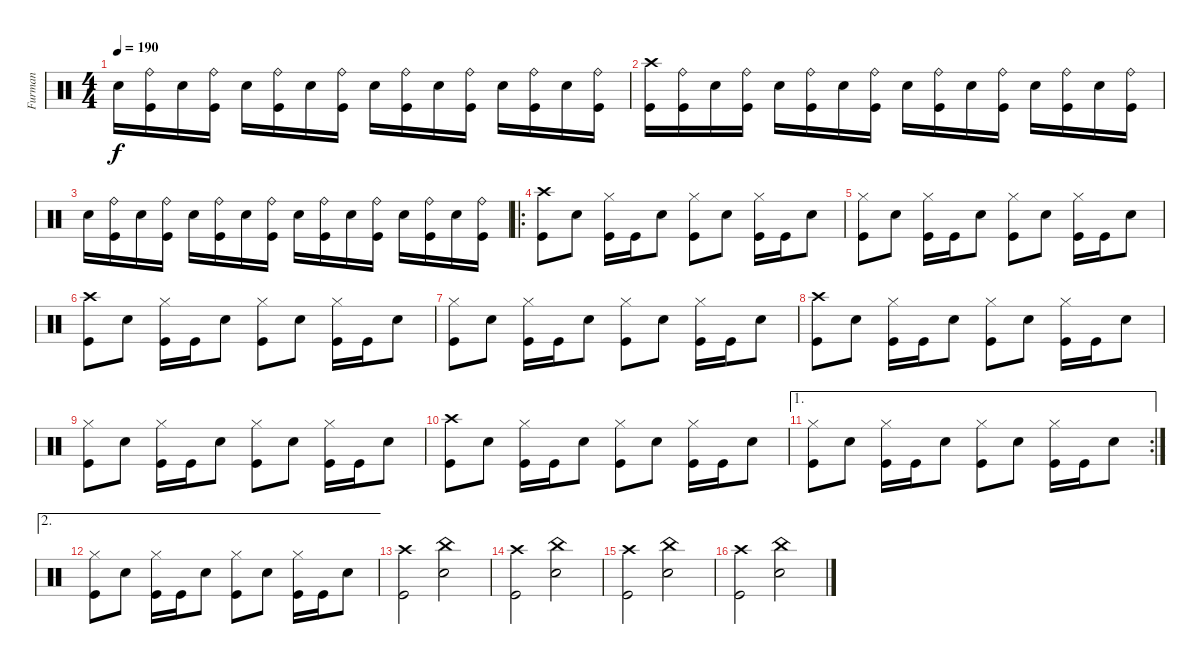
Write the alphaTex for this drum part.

\track ("Furman" "Furman") {instrument percussion}
\staff {score}
\articulation defaults
\ts (4 4)
\tempo 190
\clef neutral
\ks c "Electric Snare (hit)".16{dy f}
("Ride (bell)" "Kick (hit)").16 "Electric Snare (hit)".16 ("Ride (bell)" "Kick (hit)").16 "Electric Snare (hit)".16 ("Ride (bell)" "Kick (hit)").16 "Electric Snare (hit)".16 ("Ride (bell)" "Kick (hit)").16 "Electric Snare (hit)".16 ("Ride (bell)" "Kick (hit)").16 "Electric Snare (hit)".16 ("Ride (bell)" "Kick (hit)").16 "Electric Snare (hit)".16 ("Ride (bell)" "Kick (hit)").16 "Electric Snare (hit)".16 ("Ride (bell)" "Kick (hit)").16 |
("Crash high (hit)" "Kick (hit)").16 ("Ride (bell)" "Kick (hit)").16 "Electric Snare (hit)".16 ("Ride (bell)" "Kick (hit)").16 "Electric Snare (hit)".16 ("Ride (bell)" "Kick (hit)").16 "Electric Snare (hit)".16 ("Ride (bell)" "Kick (hit)").16 "Electric Snare (hit)".16 ("Ride (bell)" "Kick (hit)").16 "Electric Snare (hit)".16 ("Ride (bell)" "Kick (hit)").16 "Electric Snare (hit)".16 ("Ride (bell)" "Kick (hit)").16 "Electric Snare (hit)".16 ("Ride (bell)" "Kick (hit)").16 |
"Electric Snare (hit)".16 ("Ride (bell)" "Kick (hit)").16 "Electric Snare (hit)".16 ("Ride (bell)" "Kick (hit)").16 "Electric Snare (hit)".16 ("Ride (bell)" "Kick (hit)").16 "Electric Snare (hit)".16 ("Ride (bell)" "Kick (hit)").16 "Electric Snare (hit)".16 ("Ride (bell)" "Kick (hit)").16 "Electric Snare (hit)".16 ("Ride (bell)" "Kick (hit)").16 "Electric Snare (hit)".16 ("Ride (bell)" "Kick (hit)").16 "Electric Snare (hit)".16 ("Ride (bell)" "Kick (hit)").16 |
\ro
("Crash high (hit)" "Kick (hit)").8 "Electric Snare (hit)".8 ("Hi-Hat (closed)" "Kick (hit)").16 "Kick (hit)".16 "Electric Snare (hit)".8 ("Hi-Hat (closed)" "Kick (hit)").8 "Electric Snare (hit)".8 ("Hi-Hat (closed)" "Kick (hit)").16 "Kick (hit)".16 "Electric Snare (hit)".8 |
("Hi-Hat (closed)" "Kick (hit)").8 "Electric Snare (hit)".8 ("Hi-Hat (closed)" "Kick (hit)").16 "Kick (hit)".16 "Electric Snare (hit)".8 ("Hi-Hat (closed)" "Kick (hit)").8 "Electric Snare (hit)".8 ("Hi-Hat (closed)" "Kick (hit)").16 "Kick (hit)".16 "Electric Snare (hit)".8 |
("Crash high (hit)" "Kick (hit)").8 "Electric Snare (hit)".8 ("Hi-Hat (closed)" "Kick (hit)").16 "Kick (hit)".16 "Electric Snare (hit)".8 ("Hi-Hat (closed)" "Kick (hit)").8 "Electric Snare (hit)".8 ("Hi-Hat (closed)" "Kick (hit)").16 "Kick (hit)".16 "Electric Snare (hit)".8 |
("Hi-Hat (closed)" "Kick (hit)").8 "Electric Snare (hit)".8 ("Hi-Hat (closed)" "Kick (hit)").16 "Kick (hit)".16 "Electric Snare (hit)".8 ("Hi-Hat (closed)" "Kick (hit)").8 "Electric Snare (hit)".8 ("Hi-Hat (closed)" "Kick (hit)").16 "Kick (hit)".16 "Electric Snare (hit)".8 |
("Crash high (hit)" "Kick (hit)").8 "Electric Snare (hit)".8 ("Hi-Hat (closed)" "Kick (hit)").16 "Kick (hit)".16 "Electric Snare (hit)".8 ("Hi-Hat (closed)" "Kick (hit)").8 "Electric Snare (hit)".8 ("Hi-Hat (closed)" "Kick (hit)").16 "Kick (hit)".16 "Electric Snare (hit)".8 |
("Hi-Hat (closed)" "Kick (hit)").8 "Electric Snare (hit)".8 ("Hi-Hat (closed)" "Kick (hit)").16 "Kick (hit)".16 "Electric Snare (hit)".8 ("Hi-Hat (closed)" "Kick (hit)").8 "Electric Snare (hit)".8 ("Hi-Hat (closed)" "Kick (hit)").16 "Kick (hit)".16 "Electric Snare (hit)".8 |
("Crash high (hit)" "Kick (hit)").8 "Electric Snare (hit)".8 ("Hi-Hat (closed)" "Kick (hit)").16 "Kick (hit)".16 "Electric Snare (hit)".8 ("Hi-Hat (closed)" "Kick (hit)").8 "Electric Snare (hit)".8 ("Hi-Hat (closed)" "Kick (hit)").16 "Kick (hit)".16 "Electric Snare (hit)".8 |
\ae 1
\rc 2
("Hi-Hat (closed)" "Kick (hit)").8 "Electric Snare (hit)".8 ("Hi-Hat (closed)" "Kick (hit)").16 "Kick (hit)".16 "Electric Snare (hit)".8 ("Hi-Hat (closed)" "Kick (hit)").8 "Electric Snare (hit)".8 ("Hi-Hat (closed)" "Kick (hit)").16 "Kick (hit)".16 "Electric Snare (hit)".8 |
\ae 2
("Hi-Hat (closed)" "Kick (hit)").8 "Electric Snare (hit)".8 ("Hi-Hat (closed)" "Kick (hit)").16 "Kick (hit)".16 "Electric Snare (hit)".8 ("Hi-Hat (closed)" "Kick (hit)").8 "Electric Snare (hit)".8 ("Hi-Hat (closed)" "Kick (hit)").16 "Kick (hit)".16 "Electric Snare (hit)".8 |
("Crash high (hit)" "Kick (hit)").2 ("China (hit)" "Electric Snare (hit)").2 |
("Crash high (hit)" "Kick (hit)").2 ("China (hit)" "Electric Snare (hit)").2 |
("Crash high (hit)" "Kick (hit)").2 ("China (hit)" "Electric Snare (hit)").2 |
("Crash high (hit)" "Kick (hit)").2 ("China (hit)" "Electric Snare (hit)").2
